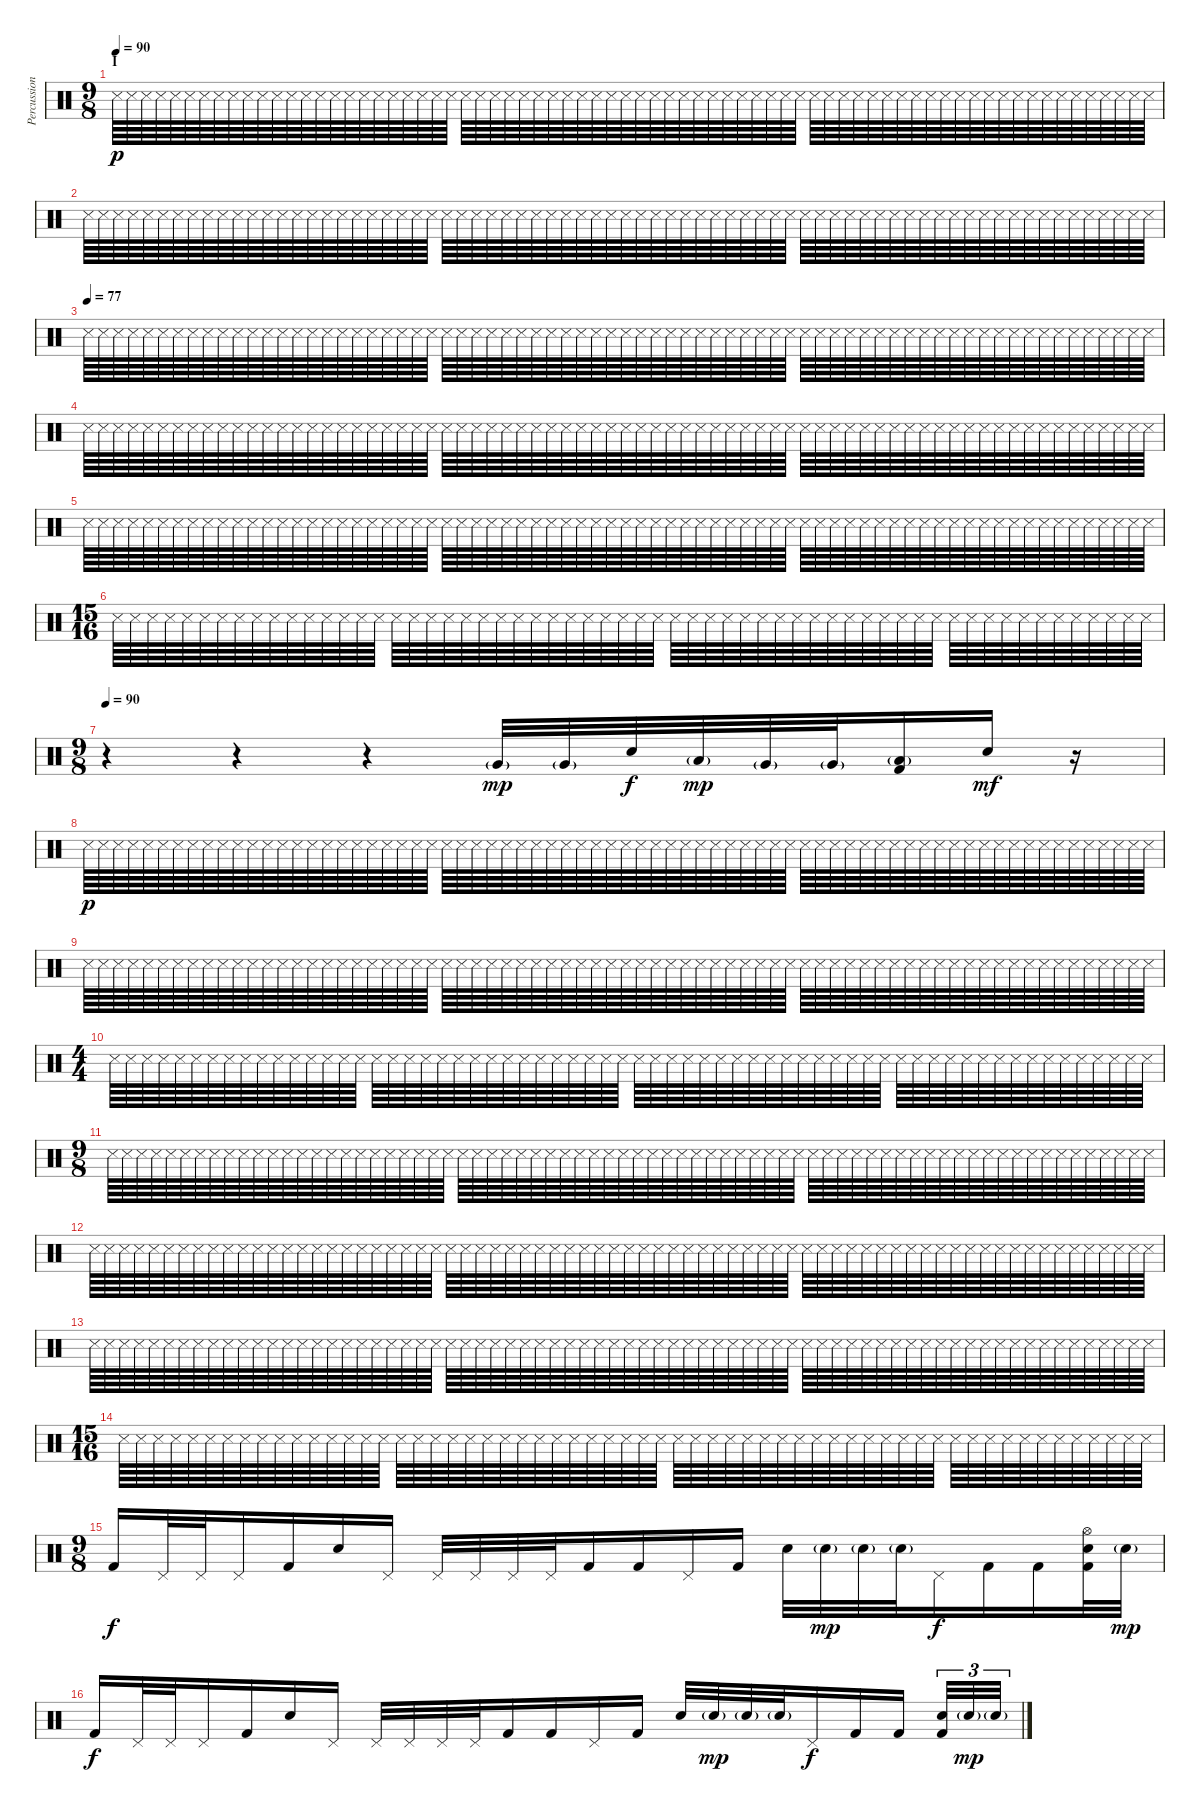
\track ("Percussion" "Percussion") {instrument percussion}
\staff {score}
\articulation defaults
\ts (9 8)
\section ("" "I")
\tempo 90
\clef neutral
\ks c "Snare (side stick) 3".64{dy p volume 13} "Snare (side stick) 3".64 "Snare (side stick) 3".64 "Snare (side stick) 3".64 "Snare (side stick) 3".64 "Snare (side stick) 3".64 "Snare (side stick) 3".64 "Snare (side stick) 3".64 "Snare (side stick) 3".64 "Snare (side stick) 3".64 "Snare (side stick) 3".64 "Snare (side stick) 3".64 "Snare (side stick) 3".64 "Snare (side stick) 3".64 "Snare (side stick) 3".64 "Snare (side stick) 3".64 "Snare (side stick) 3".64 "Snare (side stick) 3".64 "Snare (side stick) 3".64 "Snare (side stick) 3".64 "Snare (side stick) 3".64 "Snare (side stick) 3".64 "Snare (side stick) 3".64 "Snare (side stick) 3".64 "Snare (side stick) 3".64 "Snare (side stick) 3".64 "Snare (side stick) 3".64 "Snare (side stick) 3".64 "Snare (side stick) 3".64 "Snare (side stick) 3".64 "Snare (side stick) 3".64 "Snare (side stick) 3".64 "Snare (side stick) 3".64 "Snare (side stick) 3".64 "Snare (side stick) 3".64 "Snare (side stick) 3".64 "Snare (side stick) 3".64 "Snare (side stick) 3".64 "Snare (side stick) 3".64 "Snare (side stick) 3".64 "Snare (side stick) 3".64 "Snare (side stick) 3".64 "Snare (side stick) 3".64 "Snare (side stick) 3".64 "Snare (side stick) 3".64 "Snare (side stick) 3".64 "Snare (side stick) 3".64 "Snare (side stick) 3".64 "Snare (side stick) 3".64 "Snare (side stick) 3".64 "Snare (side stick) 3".64 "Snare (side stick) 3".64 "Snare (side stick) 3".64 "Snare (side stick) 3".64 "Snare (side stick) 3".64 "Snare (side stick) 3".64 "Snare (side stick) 3".64 "Snare (side stick) 3".64 "Snare (side stick) 3".64 "Snare (side stick) 3".64 "Snare (side stick) 3".64 "Snare (side stick) 3".64 "Snare (side stick) 3".64 "Snare (side stick) 3".64 "Snare (side stick) 3".64 "Snare (side stick) 3".64 "Snare (side stick) 3".64 "Snare (side stick) 3".64 "Snare (side stick) 3".64 "Snare (side stick) 3".64 "Snare (side stick) 3".64 "Snare (side stick) 3".64
|
"Snare (side stick) 3".64 "Snare (side stick) 3".64 "Snare (side stick) 3".64 "Snare (side stick) 3".64 "Snare (side stick) 3".64 "Snare (side stick) 3".64 "Snare (side stick) 3".64 "Snare (side stick) 3".64 "Snare (side stick) 3".64 "Snare (side stick) 3".64 "Snare (side stick) 3".64 "Snare (side stick) 3".64 "Snare (side stick) 3".64 "Snare (side stick) 3".64 "Snare (side stick) 3".64 "Snare (side stick) 3".64 "Snare (side stick) 3".64 "Snare (side stick) 3".64 "Snare (side stick) 3".64 "Snare (side stick) 3".64 "Snare (side stick) 3".64 "Snare (side stick) 3".64 "Snare (side stick) 3".64 "Snare (side stick) 3".64 "Snare (side stick) 3".64 "Snare (side stick) 3".64 "Snare (side stick) 3".64 "Snare (side stick) 3".64 "Snare (side stick) 3".64 "Snare (side stick) 3".64 "Snare (side stick) 3".64 "Snare (side stick) 3".64 "Snare (side stick) 3".64 "Snare (side stick) 3".64 "Snare (side stick) 3".64 "Snare (side stick) 3".64 "Snare (side stick) 3".64 "Snare (side stick) 3".64 "Snare (side stick) 3".64 "Snare (side stick) 3".64 "Snare (side stick) 3".64 "Snare (side stick) 3".64 "Snare (side stick) 3".64 "Snare (side stick) 3".64 "Snare (side stick) 3".64 "Snare (side stick) 3".64 "Snare (side stick) 3".64 "Snare (side stick) 3".64 "Snare (side stick) 3".64 "Snare (side stick) 3".64 "Snare (side stick) 3".64 "Snare (side stick) 3".64 "Snare (side stick) 3".64 "Snare (side stick) 3".64 "Snare (side stick) 3".64 "Snare (side stick) 3".64 "Snare (side stick) 3".64 "Snare (side stick) 3".64 "Snare (side stick) 3".64 "Snare (side stick) 3".64 "Snare (side stick) 3".64 "Snare (side stick) 3".64 "Snare (side stick) 3".64 "Snare (side stick) 3".64 "Snare (side stick) 3".64 "Snare (side stick) 3".64 "Snare (side stick) 3".64 "Snare (side stick) 3".64 "Snare (side stick) 3".64 "Snare (side stick) 3".64 "Snare (side stick) 3".64 "Snare (side stick) 3".64 |
\tempo (77)
"Snare (side stick) 3".64{volume 13} "Snare (side stick) 3".64 "Snare (side stick) 3".64 "Snare (side stick) 3".64 "Snare (side stick) 3".64 "Snare (side stick) 3".64 "Snare (side stick) 3".64 "Snare (side stick) 3".64 "Snare (side stick) 3".64 "Snare (side stick) 3".64 "Snare (side stick) 3".64 "Snare (side stick) 3".64 "Snare (side stick) 3".64 "Snare (side stick) 3".64 "Snare (side stick) 3".64 "Snare (side stick) 3".64 "Snare (side stick) 3".64 "Snare (side stick) 3".64 "Snare (side stick) 3".64 "Snare (side stick) 3".64 "Snare (side stick) 3".64 "Snare (side stick) 3".64 "Snare (side stick) 3".64 "Snare (side stick) 3".64 "Snare (side stick) 3".64 "Snare (side stick) 3".64 "Snare (side stick) 3".64 "Snare (side stick) 3".64 "Snare (side stick) 3".64 "Snare (side stick) 3".64 "Snare (side stick) 3".64 "Snare (side stick) 3".64 "Snare (side stick) 3".64 "Snare (side stick) 3".64 "Snare (side stick) 3".64 "Snare (side stick) 3".64 "Snare (side stick) 3".64 "Snare (side stick) 3".64 "Snare (side stick) 3".64 "Snare (side stick) 3".64 "Snare (side stick) 3".64 "Snare (side stick) 3".64 "Snare (side stick) 3".64 "Snare (side stick) 3".64 "Snare (side stick) 3".64 "Snare (side stick) 3".64 "Snare (side stick) 3".64 "Snare (side stick) 3".64 "Snare (side stick) 3".64 "Snare (side stick) 3".64 "Snare (side stick) 3".64 "Snare (side stick) 3".64 "Snare (side stick) 3".64 "Snare (side stick) 3".64 "Snare (side stick) 3".64 "Snare (side stick) 3".64 "Snare (side stick) 3".64 "Snare (side stick) 3".64 "Snare (side stick) 3".64 "Snare (side stick) 3".64 "Snare (side stick) 3".64 "Snare (side stick) 3".64 "Snare (side stick) 3".64 "Snare (side stick) 3".64 "Snare (side stick) 3".64 "Snare (side stick) 3".64 "Snare (side stick) 3".64 "Snare (side stick) 3".64 "Snare (side stick) 3".64 "Snare (side stick) 3".64 "Snare (side stick) 3".64 "Snare (side stick) 3".64 |
"Snare (side stick) 3".64 "Snare (side stick) 3".64 "Snare (side stick) 3".64 "Snare (side stick) 3".64 "Snare (side stick) 3".64 "Snare (side stick) 3".64 "Snare (side stick) 3".64 "Snare (side stick) 3".64 "Snare (side stick) 3".64 "Snare (side stick) 3".64 "Snare (side stick) 3".64 "Snare (side stick) 3".64 "Snare (side stick) 3".64 "Snare (side stick) 3".64 "Snare (side stick) 3".64 "Snare (side stick) 3".64 "Snare (side stick) 3".64 "Snare (side stick) 3".64 "Snare (side stick) 3".64 "Snare (side stick) 3".64 "Snare (side stick) 3".64 "Snare (side stick) 3".64 "Snare (side stick) 3".64 "Snare (side stick) 3".64 "Snare (side stick) 3".64 "Snare (side stick) 3".64 "Snare (side stick) 3".64 "Snare (side stick) 3".64 "Snare (side stick) 3".64 "Snare (side stick) 3".64 "Snare (side stick) 3".64 "Snare (side stick) 3".64 "Snare (side stick) 3".64 "Snare (side stick) 3".64 "Snare (side stick) 3".64 "Snare (side stick) 3".64 "Snare (side stick) 3".64 "Snare (side stick) 3".64 "Snare (side stick) 3".64 "Snare (side stick) 3".64 "Snare (side stick) 3".64 "Snare (side stick) 3".64 "Snare (side stick) 3".64 "Snare (side stick) 3".64 "Snare (side stick) 3".64 "Snare (side stick) 3".64 "Snare (side stick) 3".64 "Snare (side stick) 3".64 "Snare (side stick) 3".64 "Snare (side stick) 3".64 "Snare (side stick) 3".64 "Snare (side stick) 3".64 "Snare (side stick) 3".64 "Snare (side stick) 3".64 "Snare (side stick) 3".64 "Snare (side stick) 3".64 "Snare (side stick) 3".64 "Snare (side stick) 3".64 "Snare (side stick) 3".64 "Snare (side stick) 3".64 "Snare (side stick) 3".64 "Snare (side stick) 3".64 "Snare (side stick) 3".64 "Snare (side stick) 3".64 "Snare (side stick) 3".64 "Snare (side stick) 3".64 "Snare (side stick) 3".64 "Snare (side stick) 3".64 "Snare (side stick) 3".64 "Snare (side stick) 3".64 "Snare (side stick) 3".64 "Snare (side stick) 3".64 |
"Snare (side stick) 3".64{volume 0} "Snare (side stick) 3".64 "Snare (side stick) 3".64 "Snare (side stick) 3".64 "Snare (side stick) 3".64 "Snare (side stick) 3".64 "Snare (side stick) 3".64 "Snare (side stick) 3".64 "Snare (side stick) 3".64 "Snare (side stick) 3".64 "Snare (side stick) 3".64 "Snare (side stick) 3".64 "Snare (side stick) 3".64 "Snare (side stick) 3".64 "Snare (side stick) 3".64 "Snare (side stick) 3".64 "Snare (side stick) 3".64 "Snare (side stick) 3".64 "Snare (side stick) 3".64 "Snare (side stick) 3".64 "Snare (side stick) 3".64 "Snare (side stick) 3".64 "Snare (side stick) 3".64 "Snare (side stick) 3".64 "Snare (side stick) 3".64 "Snare (side stick) 3".64 "Snare (side stick) 3".64 "Snare (side stick) 3".64 "Snare (side stick) 3".64 "Snare (side stick) 3".64 "Snare (side stick) 3".64 "Snare (side stick) 3".64 "Snare (side stick) 3".64 "Snare (side stick) 3".64 "Snare (side stick) 3".64 "Snare (side stick) 3".64 "Snare (side stick) 3".64 "Snare (side stick) 3".64 "Snare (side stick) 3".64 "Snare (side stick) 3".64 "Snare (side stick) 3".64 "Snare (side stick) 3".64 "Snare (side stick) 3".64 "Snare (side stick) 3".64 "Snare (side stick) 3".64 "Snare (side stick) 3".64 "Snare (side stick) 3".64 "Snare (side stick) 3".64 "Snare (side stick) 3".64 "Snare (side stick) 3".64 "Snare (side stick) 3".64 "Snare (side stick) 3".64 "Snare (side stick) 3".64 "Snare (side stick) 3".64 "Snare (side stick) 3".64 "Snare (side stick) 3".64 "Snare (side stick) 3".64 "Snare (side stick) 3".64 "Snare (side stick) 3".64 "Snare (side stick) 3".64 "Snare (side stick) 3".64 "Snare (side stick) 3".64 "Snare (side stick) 3".64 "Snare (side stick) 3".64 "Snare (side stick) 3".64 "Snare (side stick) 3".64 "Snare (side stick) 3".64 "Snare (side stick) 3".64 "Snare (side stick) 3".64 "Snare (side stick) 3".64 "Snare (side stick) 3".64 "Snare (side stick) 3".64 |
\ts (15 16)
"Snare (side stick) 3".64 "Snare (side stick) 3".64 "Snare (side stick) 3".64 "Snare (side stick) 3".64 "Snare (side stick) 3".64 "Snare (side stick) 3".64 "Snare (side stick) 3".64 "Snare (side stick) 3".64 "Snare (side stick) 3".64 "Snare (side stick) 3".64 "Snare (side stick) 3".64 "Snare (side stick) 3".64 "Snare (side stick) 3".64 "Snare (side stick) 3".64 "Snare (side stick) 3".64 "Snare (side stick) 3".64 "Snare (side stick) 3".64 "Snare (side stick) 3".64 "Snare (side stick) 3".64 "Snare (side stick) 3".64 "Snare (side stick) 3".64 "Snare (side stick) 3".64 "Snare (side stick) 3".64 "Snare (side stick) 3".64 "Snare (side stick) 3".64 "Snare (side stick) 3".64 "Snare (side stick) 3".64 "Snare (side stick) 3".64 "Snare (side stick) 3".64 "Snare (side stick) 3".64 "Snare (side stick) 3".64 "Snare (side stick) 3".64 "Snare (side stick) 3".64 "Snare (side stick) 3".64 "Snare (side stick) 3".64 "Snare (side stick) 3".64 "Snare (side stick) 3".64 "Snare (side stick) 3".64 "Snare (side stick) 3".64 "Snare (side stick) 3".64 "Snare (side stick) 3".64 "Snare (side stick) 3".64 "Snare (side stick) 3".64 "Snare (side stick) 3".64 "Snare (side stick) 3".64 "Snare (side stick) 3".64 "Snare (side stick) 3".64 "Snare (side stick) 3".64 "Snare (side stick) 3".64 "Snare (side stick) 3".64 "Snare (side stick) 3".64 "Snare (side stick) 3".64 "Snare (side stick) 3".64 "Snare (side stick) 3".64 "Snare (side stick) 3".64 "Snare (side stick) 3".64 "Snare (side stick) 3".64 "Snare (side stick) 3".64 "Snare (side stick) 3".64 "Snare (side stick) 3".64 |
\ts (9 8)
\tempo 90
r.4 r.4 r.4 "Very Low Tom (hit)"{g}.32{dy mp volume 13} "Very Low Tom (hit)"{g}.32 "Snare (hit) 2".32{dy f} "Low Tom (hit)"{g}.32{dy mp} "Very Low Tom (hit)"{g}.32 "Very Low Tom (hit)"{g}.32 ("Low Floor Tom (hit)"{g} "Kick (hit) 2").16 "Snare (hit) 2".16{dy mf} r.16{volume 0} |
"Snare (side stick) 3".64{dy p volume 13} "Snare (side stick) 3".64 "Snare (side stick) 3".64 "Snare (side stick) 3".64 "Snare (side stick) 3".64 "Snare (side stick) 3".64 "Snare (side stick) 3".64 "Snare (side stick) 3".64 "Snare (side stick) 3".64 "Snare (side stick) 3".64 "Snare (side stick) 3".64 "Snare (side stick) 3".64 "Snare (side stick) 3".64 "Snare (side stick) 3".64 "Snare (side stick) 3".64 "Snare (side stick) 3".64 "Snare (side stick) 3".64 "Snare (side stick) 3".64 "Snare (side stick) 3".64 "Snare (side stick) 3".64 "Snare (side stick) 3".64 "Snare (side stick) 3".64 "Snare (side stick) 3".64 "Snare (side stick) 3".64 "Snare (side stick) 3".64 "Snare (side stick) 3".64 "Snare (side stick) 3".64 "Snare (side stick) 3".64 "Snare (side stick) 3".64 "Snare (side stick) 3".64 "Snare (side stick) 3".64 "Snare (side stick) 3".64 "Snare (side stick) 3".64 "Snare (side stick) 3".64 "Snare (side stick) 3".64 "Snare (side stick) 3".64 "Snare (side stick) 3".64 "Snare (side stick) 3".64 "Snare (side stick) 3".64 "Snare (side stick) 3".64 "Snare (side stick) 3".64 "Snare (side stick) 3".64 "Snare (side stick) 3".64 "Snare (side stick) 3".64 "Snare (side stick) 3".64 "Snare (side stick) 3".64 "Snare (side stick) 3".64 "Snare (side stick) 3".64 "Snare (side stick) 3".64 "Snare (side stick) 3".64 "Snare (side stick) 3".64 "Snare (side stick) 3".64 "Snare (side stick) 3".64 "Snare (side stick) 3".64 "Snare (side stick) 3".64 "Snare (side stick) 3".64 "Snare (side stick) 3".64 "Snare (side stick) 3".64 "Snare (side stick) 3".64 "Snare (side stick) 3".64 "Snare (side stick) 3".64 "Snare (side stick) 3".64 "Snare (side stick) 3".64 "Snare (side stick) 3".64 "Snare (side stick) 3".64 "Snare (side stick) 3".64 "Snare (side stick) 3".64 "Snare (side stick) 3".64 "Snare (side stick) 3".64 "Snare (side stick) 3".64 "Snare (side stick) 3".64 "Snare (side stick) 3".64 |
"Snare (side stick) 3".64 "Snare (side stick) 3".64 "Snare (side stick) 3".64 "Snare (side stick) 3".64 "Snare (side stick) 3".64 "Snare (side stick) 3".64 "Snare (side stick) 3".64 "Snare (side stick) 3".64 "Snare (side stick) 3".64 "Snare (side stick) 3".64 "Snare (side stick) 3".64 "Snare (side stick) 3".64 "Snare (side stick) 3".64 "Snare (side stick) 3".64 "Snare (side stick) 3".64 "Snare (side stick) 3".64 "Snare (side stick) 3".64 "Snare (side stick) 3".64 "Snare (side stick) 3".64 "Snare (side stick) 3".64 "Snare (side stick) 3".64 "Snare (side stick) 3".64 "Snare (side stick) 3".64 "Snare (side stick) 3".64 "Snare (side stick) 3".64 "Snare (side stick) 3".64 "Snare (side stick) 3".64 "Snare (side stick) 3".64 "Snare (side stick) 3".64 "Snare (side stick) 3".64 "Snare (side stick) 3".64 "Snare (side stick) 3".64 "Snare (side stick) 3".64 "Snare (side stick) 3".64 "Snare (side stick) 3".64 "Snare (side stick) 3".64 "Snare (side stick) 3".64 "Snare (side stick) 3".64 "Snare (side stick) 3".64 "Snare (side stick) 3".64 "Snare (side stick) 3".64 "Snare (side stick) 3".64 "Snare (side stick) 3".64 "Snare (side stick) 3".64 "Snare (side stick) 3".64 "Snare (side stick) 3".64 "Snare (side stick) 3".64 "Snare (side stick) 3".64 "Snare (side stick) 3".64 "Snare (side stick) 3".64 "Snare (side stick) 3".64 "Snare (side stick) 3".64 "Snare (side stick) 3".64 "Snare (side stick) 3".64 "Snare (side stick) 3".64 "Snare (side stick) 3".64 "Snare (side stick) 3".64 "Snare (side stick) 3".64 "Snare (side stick) 3".64 "Snare (side stick) 3".64 "Snare (side stick) 3".64 "Snare (side stick) 3".64 "Snare (side stick) 3".64 "Snare (side stick) 3".64 "Snare (side stick) 3".64 "Snare (side stick) 3".64 "Snare (side stick) 3".64 "Snare (side stick) 3".64 "Snare (side stick) 3".64 "Snare (side stick) 3".64 "Snare (side stick) 3".64 "Snare (side stick) 3".64 |
\ts (4 4)
"Snare (side stick) 3".64 "Snare (side stick) 3".64 "Snare (side stick) 3".64 "Snare (side stick) 3".64 "Snare (side stick) 3".64 "Snare (side stick) 3".64 "Snare (side stick) 3".64 "Snare (side stick) 3".64 "Snare (side stick) 3".64 "Snare (side stick) 3".64 "Snare (side stick) 3".64 "Snare (side stick) 3".64 "Snare (side stick) 3".64 "Snare (side stick) 3".64 "Snare (side stick) 3".64 "Snare (side stick) 3".64 "Snare (side stick) 3".64 "Snare (side stick) 3".64 "Snare (side stick) 3".64 "Snare (side stick) 3".64 "Snare (side stick) 3".64 "Snare (side stick) 3".64 "Snare (side stick) 3".64 "Snare (side stick) 3".64 "Snare (side stick) 3".64 "Snare (side stick) 3".64 "Snare (side stick) 3".64 "Snare (side stick) 3".64 "Snare (side stick) 3".64 "Snare (side stick) 3".64 "Snare (side stick) 3".64 "Snare (side stick) 3".64 "Snare (side stick) 3".64 "Snare (side stick) 3".64 "Snare (side stick) 3".64 "Snare (side stick) 3".64 "Snare (side stick) 3".64 "Snare (side stick) 3".64 "Snare (side stick) 3".64 "Snare (side stick) 3".64 "Snare (side stick) 3".64 "Snare (side stick) 3".64 "Snare (side stick) 3".64 "Snare (side stick) 3".64 "Snare (side stick) 3".64 "Snare (side stick) 3".64 "Snare (side stick) 3".64 "Snare (side stick) 3".64 "Snare (side stick) 3".64 "Snare (side stick) 3".64 "Snare (side stick) 3".64 "Snare (side stick) 3".64 "Snare (side stick) 3".64 "Snare (side stick) 3".64 "Snare (side stick) 3".64 "Snare (side stick) 3".64 "Snare (side stick) 3".64 "Snare (side stick) 3".64 "Snare (side stick) 3".64 "Snare (side stick) 3".64 "Snare (side stick) 3".64 "Snare (side stick) 3".64 "Snare (side stick) 3".64 "Snare (side stick) 3".64 |
\ts (9 8)
"Snare (side stick) 3".64{volume 13} "Snare (side stick) 3".64 "Snare (side stick) 3".64 "Snare (side stick) 3".64 "Snare (side stick) 3".64 "Snare (side stick) 3".64 "Snare (side stick) 3".64 "Snare (side stick) 3".64 "Snare (side stick) 3".64 "Snare (side stick) 3".64 "Snare (side stick) 3".64 "Snare (side stick) 3".64 "Snare (side stick) 3".64 "Snare (side stick) 3".64 "Snare (side stick) 3".64 "Snare (side stick) 3".64 "Snare (side stick) 3".64 "Snare (side stick) 3".64 "Snare (side stick) 3".64 "Snare (side stick) 3".64 "Snare (side stick) 3".64 "Snare (side stick) 3".64 "Snare (side stick) 3".64 "Snare (side stick) 3".64 "Snare (side stick) 3".64 "Snare (side stick) 3".64 "Snare (side stick) 3".64 "Snare (side stick) 3".64 "Snare (side stick) 3".64 "Snare (side stick) 3".64 "Snare (side stick) 3".64 "Snare (side stick) 3".64 "Snare (side stick) 3".64 "Snare (side stick) 3".64 "Snare (side stick) 3".64 "Snare (side stick) 3".64 "Snare (side stick) 3".64 "Snare (side stick) 3".64 "Snare (side stick) 3".64 "Snare (side stick) 3".64 "Snare (side stick) 3".64 "Snare (side stick) 3".64 "Snare (side stick) 3".64 "Snare (side stick) 3".64 "Snare (side stick) 3".64 "Snare (side stick) 3".64 "Snare (side stick) 3".64 "Snare (side stick) 3".64 "Snare (side stick) 3".64 "Snare (side stick) 3".64 "Snare (side stick) 3".64 "Snare (side stick) 3".64 "Snare (side stick) 3".64 "Snare (side stick) 3".64 "Snare (side stick) 3".64 "Snare (side stick) 3".64 "Snare (side stick) 3".64 "Snare (side stick) 3".64 "Snare (side stick) 3".64 "Snare (side stick) 3".64 "Snare (side stick) 3".64 "Snare (side stick) 3".64 "Snare (side stick) 3".64 "Snare (side stick) 3".64 "Snare (side stick) 3".64 "Snare (side stick) 3".64 "Snare (side stick) 3".64 "Snare (side stick) 3".64 "Snare (side stick) 3".64 "Snare (side stick) 3".64 "Snare (side stick) 3".64 "Snare (side stick) 3".64 |
"Snare (side stick) 3".64 "Snare (side stick) 3".64 "Snare (side stick) 3".64 "Snare (side stick) 3".64 "Snare (side stick) 3".64 "Snare (side stick) 3".64 "Snare (side stick) 3".64 "Snare (side stick) 3".64 "Snare (side stick) 3".64 "Snare (side stick) 3".64 "Snare (side stick) 3".64 "Snare (side stick) 3".64 "Snare (side stick) 3".64 "Snare (side stick) 3".64 "Snare (side stick) 3".64 "Snare (side stick) 3".64 "Snare (side stick) 3".64 "Snare (side stick) 3".64 "Snare (side stick) 3".64 "Snare (side stick) 3".64 "Snare (side stick) 3".64 "Snare (side stick) 3".64 "Snare (side stick) 3".64 "Snare (side stick) 3".64 "Snare (side stick) 3".64 "Snare (side stick) 3".64 "Snare (side stick) 3".64 "Snare (side stick) 3".64 "Snare (side stick) 3".64 "Snare (side stick) 3".64 "Snare (side stick) 3".64 "Snare (side stick) 3".64 "Snare (side stick) 3".64 "Snare (side stick) 3".64 "Snare (side stick) 3".64 "Snare (side stick) 3".64 "Snare (side stick) 3".64 "Snare (side stick) 3".64 "Snare (side stick) 3".64 "Snare (side stick) 3".64 "Snare (side stick) 3".64 "Snare (side stick) 3".64 "Snare (side stick) 3".64 "Snare (side stick) 3".64 "Snare (side stick) 3".64 "Snare (side stick) 3".64 "Snare (side stick) 3".64 "Snare (side stick) 3".64 "Snare (side stick) 3".64 "Snare (side stick) 3".64 "Snare (side stick) 3".64 "Snare (side stick) 3".64 "Snare (side stick) 3".64 "Snare (side stick) 3".64 "Snare (side stick) 3".64 "Snare (side stick) 3".64 "Snare (side stick) 3".64 "Snare (side stick) 3".64 "Snare (side stick) 3".64 "Snare (side stick) 3".64 "Snare (side stick) 3".64 "Snare (side stick) 3".64 "Snare (side stick) 3".64 "Snare (side stick) 3".64 "Snare (side stick) 3".64 "Snare (side stick) 3".64 "Snare (side stick) 3".64 "Snare (side stick) 3".64 "Snare (side stick) 3".64 "Snare (side stick) 3".64 "Snare (side stick) 3".64 "Snare (side stick) 3".64 |
"Snare (side stick) 3".64{volume 0} "Snare (side stick) 3".64 "Snare (side stick) 3".64 "Snare (side stick) 3".64 "Snare (side stick) 3".64 "Snare (side stick) 3".64 "Snare (side stick) 3".64 "Snare (side stick) 3".64 "Snare (side stick) 3".64 "Snare (side stick) 3".64 "Snare (side stick) 3".64 "Snare (side stick) 3".64 "Snare (side stick) 3".64 "Snare (side stick) 3".64 "Snare (side stick) 3".64 "Snare (side stick) 3".64 "Snare (side stick) 3".64 "Snare (side stick) 3".64 "Snare (side stick) 3".64 "Snare (side stick) 3".64 "Snare (side stick) 3".64 "Snare (side stick) 3".64 "Snare (side stick) 3".64 "Snare (side stick) 3".64 "Snare (side stick) 3".64 "Snare (side stick) 3".64 "Snare (side stick) 3".64 "Snare (side stick) 3".64 "Snare (side stick) 3".64 "Snare (side stick) 3".64 "Snare (side stick) 3".64 "Snare (side stick) 3".64 "Snare (side stick) 3".64 "Snare (side stick) 3".64 "Snare (side stick) 3".64 "Snare (side stick) 3".64 "Snare (side stick) 3".64 "Snare (side stick) 3".64 "Snare (side stick) 3".64 "Snare (side stick) 3".64 "Snare (side stick) 3".64 "Snare (side stick) 3".64 "Snare (side stick) 3".64 "Snare (side stick) 3".64 "Snare (side stick) 3".64 "Snare (side stick) 3".64 "Snare (side stick) 3".64 "Snare (side stick) 3".64 "Snare (side stick) 3".64 "Snare (side stick) 3".64 "Snare (side stick) 3".64 "Snare (side stick) 3".64 "Snare (side stick) 3".64 "Snare (side stick) 3".64 "Snare (side stick) 3".64 "Snare (side stick) 3".64 "Snare (side stick) 3".64 "Snare (side stick) 3".64 "Snare (side stick) 3".64 "Snare (side stick) 3".64 "Snare (side stick) 3".64 "Snare (side stick) 3".64 "Snare (side stick) 3".64 "Snare (side stick) 3".64 "Snare (side stick) 3".64 "Snare (side stick) 3".64 "Snare (side stick) 3".64 "Snare (side stick) 3".64 "Snare (side stick) 3".64 "Snare (side stick) 3".64 "Snare (side stick) 3".64 "Snare (side stick) 3".64 |
\ts (15 16)
"Snare (side stick) 3".64 "Snare (side stick) 3".64 "Snare (side stick) 3".64 "Snare (side stick) 3".64 "Snare (side stick) 3".64 "Snare (side stick) 3".64 "Snare (side stick) 3".64 "Snare (side stick) 3".64 "Snare (side stick) 3".64 "Snare (side stick) 3".64 "Snare (side stick) 3".64 "Snare (side stick) 3".64 "Snare (side stick) 3".64 "Snare (side stick) 3".64 "Snare (side stick) 3".64 "Snare (side stick) 3".64 "Snare (side stick) 3".64 "Snare (side stick) 3".64 "Snare (side stick) 3".64 "Snare (side stick) 3".64 "Snare (side stick) 3".64 "Snare (side stick) 3".64 "Snare (side stick) 3".64 "Snare (side stick) 3".64 "Snare (side stick) 3".64 "Snare (side stick) 3".64 "Snare (side stick) 3".64 "Snare (side stick) 3".64 "Snare (side stick) 3".64 "Snare (side stick) 3".64 "Snare (side stick) 3".64 "Snare (side stick) 3".64 "Snare (side stick) 3".64 "Snare (side stick) 3".64 "Snare (side stick) 3".64 "Snare (side stick) 3".64 "Snare (side stick) 3".64 "Snare (side stick) 3".64 "Snare (side stick) 3".64 "Snare (side stick) 3".64 "Snare (side stick) 3".64 "Snare (side stick) 3".64 "Snare (side stick) 3".64 "Snare (side stick) 3".64 "Snare (side stick) 3".64 "Snare (side stick) 3".64 "Snare (side stick) 3".64 "Snare (side stick) 3".64 "Snare (side stick) 3".64 "Snare (side stick) 3".64 "Snare (side stick) 3".64 "Snare (side stick) 3".64 "Snare (side stick) 3".64 "Snare (side stick) 3".64 "Snare (side stick) 3".64 "Snare (side stick) 3".64 "Snare (side stick) 3".64 "Snare (side stick) 3".64 "Snare (side stick) 3".64 "Snare (side stick) 3".64 |
\ts (9 8)
"Kick (hit) 2".16{dy f volume 13} "Pedal Hi-Hat (hit)".32 "Pedal Hi-Hat (hit)".32 "Pedal Hi-Hat (hit)".16 "Kick (hit) 2".16 "Snare (hit) 2".16 "Pedal Hi-Hat (hit)".16 "Pedal Hi-Hat (hit)".32 "Pedal Hi-Hat (hit)".32 "Pedal Hi-Hat (hit)".32 "Pedal Hi-Hat (hit)".32 "Kick (hit) 2".16 "Kick (hit) 2".16 "Pedal Hi-Hat (hit)".16 "Kick (hit) 2".16 "Snare (hit) 2".32 "Snare (hit) 2"{g}.32{dy mp} "Snare (hit) 2"{g}.32 "Snare (hit) 2"{g}.32 "Pedal Hi-Hat (hit)".16{dy f} "Kick (hit) 2".16 "Kick (hit) 2".16 ("Hi-Hat (open)" "Snare (hit) 2" "Kick (hit) 2").32 "Snare (hit) 2"{g}.32{dy mp} |
"Kick (hit) 2".16{dy f} "Pedal Hi-Hat (hit)".32 "Pedal Hi-Hat (hit)".32 "Pedal Hi-Hat (hit)".16 "Kick (hit) 2".16 "Snare (hit) 2".16 "Pedal Hi-Hat (hit)".16 "Pedal Hi-Hat (hit)".32 "Pedal Hi-Hat (hit)".32 "Pedal Hi-Hat (hit)".32 "Pedal Hi-Hat (hit)".32 "Kick (hit) 2".16 "Kick (hit) 2".16 "Pedal Hi-Hat (hit)".16 "Kick (hit) 2".16 "Snare (hit) 2".32 "Snare (hit) 2"{g}.32{dy mp} "Snare (hit) 2"{g}.32 "Snare (hit) 2"{g}.32 "Pedal Hi-Hat (hit)".16{dy f} "Kick (hit) 2".16 "Kick (hit) 2".16 ("Snare (hit) 2" "Kick (hit) 2").32{tu (3 2)} "Snare (hit) 2"{g}.32{tu (3 2) dy mp} "Snare (hit) 2"{g}.32{tu (3 2)}
